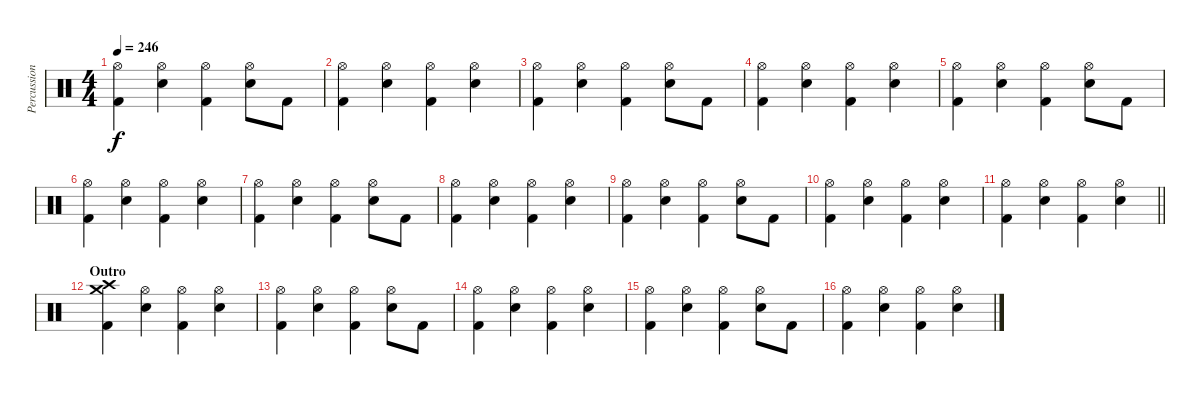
\track ("Percussions" "Percussion") {instrument percussion}
\staff {score}
\articulation defaults
\ts (4 4)
\tempo 246
\clef neutral
\ks c
("Hi-Hat (open)" "Kick (hit) 2").4{dy f} ("Hi-Hat (open)" "Electric Snare (hit)").4 ("Hi-Hat (open)" "Kick (hit) 2").4 ("Hi-Hat (open)" "Electric Snare (hit)").8 "Kick (hit) 2".8 |
("Hi-Hat (open)" "Kick (hit) 2").4 ("Hi-Hat (open)" "Electric Snare (hit)").4 ("Hi-Hat (open)" "Kick (hit) 2").4 ("Hi-Hat (open)" "Electric Snare (hit)").4 |
("Hi-Hat (open)" "Kick (hit) 2").4 ("Hi-Hat (open)" "Electric Snare (hit)").4 ("Hi-Hat (open)" "Kick (hit) 2").4 ("Hi-Hat (open)" "Electric Snare (hit)").8 "Kick (hit) 2".8 |
("Hi-Hat (open)" "Kick (hit) 2").4 ("Hi-Hat (open)" "Electric Snare (hit)").4 ("Hi-Hat (open)" "Kick (hit) 2").4 ("Hi-Hat (open)" "Electric Snare (hit)").4 |
("Hi-Hat (open)" "Kick (hit) 2").4 ("Hi-Hat (open)" "Electric Snare (hit)").4 ("Hi-Hat (open)" "Kick (hit) 2").4 ("Hi-Hat (open)" "Electric Snare (hit)").8 "Kick (hit) 2".8 |
("Hi-Hat (open)" "Kick (hit) 2").4 ("Hi-Hat (open)" "Electric Snare (hit)").4 ("Hi-Hat (open)" "Kick (hit) 2").4 ("Hi-Hat (open)" "Electric Snare (hit)").4 |
("Hi-Hat (open)" "Kick (hit) 2").4 ("Hi-Hat (open)" "Electric Snare (hit)").4 ("Hi-Hat (open)" "Kick (hit) 2").4 ("Hi-Hat (open)" "Electric Snare (hit)").8 "Kick (hit) 2".8 |
("Hi-Hat (open)" "Kick (hit) 2").4 ("Hi-Hat (open)" "Electric Snare (hit)").4 ("Hi-Hat (open)" "Kick (hit) 2").4 ("Hi-Hat (open)" "Electric Snare (hit)").4 |
("Hi-Hat (open)" "Kick (hit) 2").4 ("Hi-Hat (open)" "Electric Snare (hit)").4 ("Hi-Hat (open)" "Kick (hit) 2").4 ("Hi-Hat (open)" "Electric Snare (hit)").8 "Kick (hit) 2".8 |
("Hi-Hat (open)" "Kick (hit) 2").4 ("Hi-Hat (open)" "Electric Snare (hit)").4 ("Hi-Hat (open)" "Kick (hit) 2").4 ("Hi-Hat (open)" "Electric Snare (hit)").4 |
\barLineRight lightlight
("Hi-Hat (open)" "Kick (hit) 2").4 ("Hi-Hat (open)" "Electric Snare (hit)").4 ("Hi-Hat (open)" "Kick (hit) 2").4 ("Hi-Hat (open)" "Electric Snare (hit)").4 |
\section ("" "Outro")
("Crash high (hit)" "Crash medium (hit)" "Kick (hit) 2").4 ("Hi-Hat (open)" "Electric Snare (hit)").4 ("Hi-Hat (open)" "Kick (hit) 2").4 ("Hi-Hat (open)" "Electric Snare (hit)").4 |
("Hi-Hat (open)" "Kick (hit) 2").4 ("Hi-Hat (open)" "Electric Snare (hit)").4 ("Hi-Hat (open)" "Kick (hit) 2").4 ("Hi-Hat (open)" "Electric Snare (hit)").8 "Kick (hit) 2".8 |
("Hi-Hat (open)" "Kick (hit) 2").4 ("Hi-Hat (open)" "Electric Snare (hit)").4 ("Hi-Hat (open)" "Kick (hit) 2").4 ("Hi-Hat (open)" "Electric Snare (hit)").4 |
("Hi-Hat (open)" "Kick (hit) 2").4 ("Hi-Hat (open)" "Electric Snare (hit)").4 ("Hi-Hat (open)" "Kick (hit) 2").4 ("Hi-Hat (open)" "Electric Snare (hit)").8 "Kick (hit) 2".8 |
("Hi-Hat (open)" "Kick (hit) 2").4 ("Hi-Hat (open)" "Electric Snare (hit)").4 ("Hi-Hat (open)" "Kick (hit) 2").4 ("Hi-Hat (open)" "Electric Snare (hit)").4
